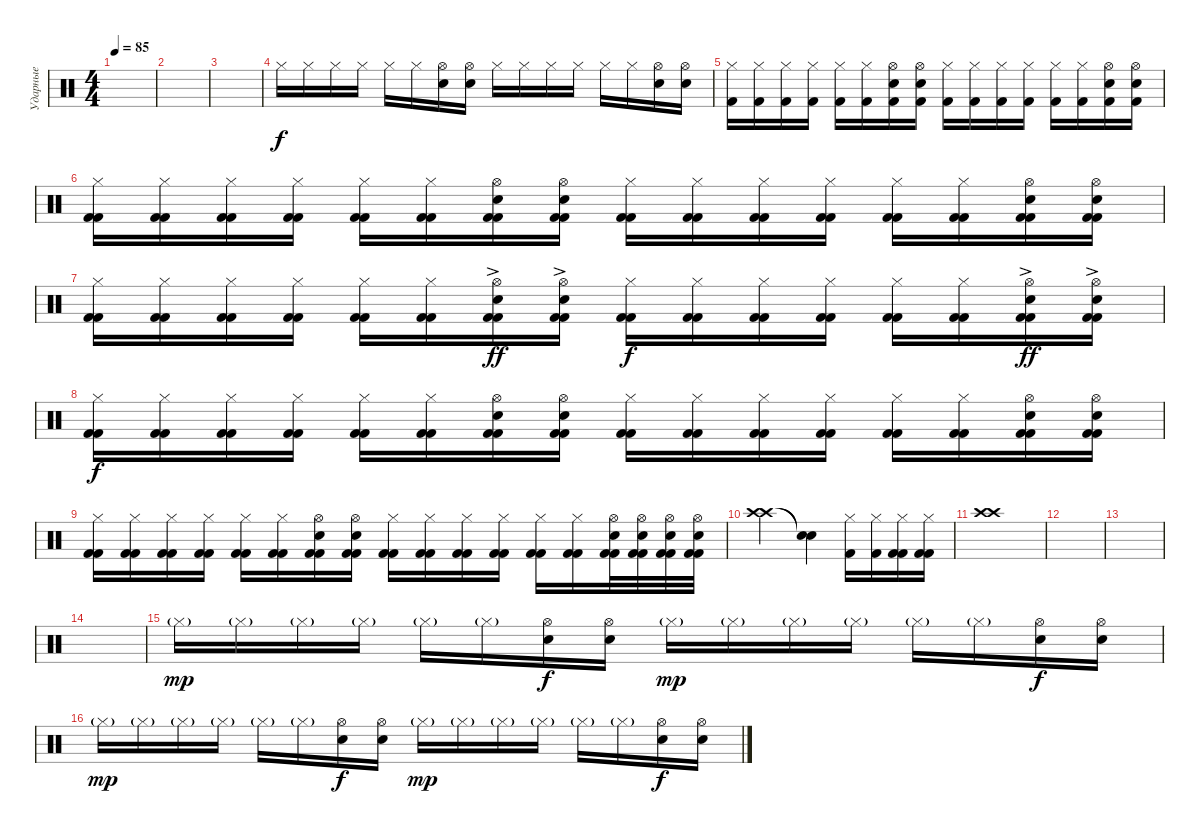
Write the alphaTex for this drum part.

\track ("Ударные" "Ударные") {instrument percussion}
\staff {score}
\articulation defaults
\ts (4 4)
\tempo 85
\clef neutral
\ks c
|
|
|
"Hi-Hat (closed)".16 "Hi-Hat (closed)".16 "Hi-Hat (closed)".16 "Hi-Hat (closed)".16 "Hi-Hat (closed)".16 "Hi-Hat (closed)".16 ("Hi-Hat (open)" "Electric Snare (hit)").16 ("Hi-Hat (open)" "Electric Snare (hit)").16 "Hi-Hat (closed)".16 "Hi-Hat (closed)".16 "Hi-Hat (closed)".16 "Hi-Hat (closed)".16 "Hi-Hat (closed)".16 "Hi-Hat (closed)".16 ("Hi-Hat (open)" "Electric Snare (hit)").16 ("Hi-Hat (open)" "Electric Snare (hit)").16 |
("Hi-Hat (closed)" "Kick (hit) 2").16 ("Hi-Hat (closed)" "Kick (hit) 2").16 ("Hi-Hat (closed)" "Kick (hit) 2").16 ("Hi-Hat (closed)" "Kick (hit) 2").16 ("Hi-Hat (closed)" "Kick (hit) 2").16 ("Hi-Hat (closed)" "Kick (hit) 2").16 ("Hi-Hat (open)" "Electric Snare (hit)" "Kick (hit) 2").16 ("Hi-Hat (open)" "Electric Snare (hit)" "Kick (hit) 2").16 ("Hi-Hat (closed)" "Kick (hit) 2").16 ("Hi-Hat (closed)" "Kick (hit) 2").16 ("Hi-Hat (closed)" "Kick (hit) 2").16 ("Hi-Hat (closed)" "Kick (hit) 2").16 ("Hi-Hat (closed)" "Kick (hit) 2").16 ("Hi-Hat (closed)" "Kick (hit) 2").16 ("Hi-Hat (open)" "Electric Snare (hit)" "Kick (hit) 2").16 ("Hi-Hat (open)" "Electric Snare (hit)" "Kick (hit) 2").16 |
("Hi-Hat (closed)" "Kick (hit) 2" "Kick (hit) 2").16 ("Hi-Hat (closed)" "Kick (hit) 2" "Kick (hit) 2").16 ("Hi-Hat (closed)" "Kick (hit) 2" "Kick (hit) 2").16 ("Hi-Hat (closed)" "Kick (hit) 2" "Kick (hit) 2").16 ("Hi-Hat (closed)" "Kick (hit) 2" "Kick (hit) 2").16 ("Hi-Hat (closed)" "Kick (hit) 2" "Kick (hit) 2").16 ("Hi-Hat (open)" "Electric Snare (hit)" "Kick (hit) 2" "Kick (hit) 2").16 ("Hi-Hat (open)" "Electric Snare (hit)" "Kick (hit) 2" "Kick (hit) 2").16 ("Hi-Hat (closed)" "Kick (hit) 2" "Kick (hit) 2").16 ("Hi-Hat (closed)" "Kick (hit) 2" "Kick (hit) 2").16 ("Hi-Hat (closed)" "Kick (hit) 2" "Kick (hit) 2").16 ("Hi-Hat (closed)" "Kick (hit) 2" "Kick (hit) 2").16 ("Hi-Hat (closed)" "Kick (hit) 2" "Kick (hit) 2").16 ("Hi-Hat (closed)" "Kick (hit) 2" "Kick (hit) 2").16 ("Hi-Hat (open)" "Electric Snare (hit)" "Kick (hit) 2" "Kick (hit) 2").16 ("Hi-Hat (open)" "Electric Snare (hit)" "Kick (hit) 2" "Kick (hit) 2").16 |
("Hi-Hat (closed)" "Kick (hit) 2" "Kick (hit) 2").16 ("Hi-Hat (closed)" "Kick (hit) 2" "Kick (hit) 2").16 ("Hi-Hat (closed)" "Kick (hit) 2" "Kick (hit) 2").16 ("Hi-Hat (closed)" "Kick (hit) 2" "Kick (hit) 2").16 ("Hi-Hat (closed)" "Kick (hit) 2" "Kick (hit) 2").16 ("Hi-Hat (closed)" "Kick (hit) 2" "Kick (hit) 2").16 ("Hi-Hat (open)"{ac} "Electric Snare (hit)"{ac} "Kick (hit) 2" "Kick (hit) 2").16{dy ff} ("Hi-Hat (open)"{ac} "Electric Snare (hit)"{ac} "Kick (hit) 2" "Kick (hit) 2").16 ("Hi-Hat (closed)" "Kick (hit) 2" "Kick (hit) 2").16{dy f} ("Hi-Hat (closed)" "Kick (hit) 2" "Kick (hit) 2").16 ("Hi-Hat (closed)" "Kick (hit) 2" "Kick (hit) 2").16 ("Hi-Hat (closed)" "Kick (hit) 2" "Kick (hit) 2").16 ("Hi-Hat (closed)" "Kick (hit) 2" "Kick (hit) 2").16 ("Hi-Hat (closed)" "Kick (hit) 2" "Kick (hit) 2").16 ("Hi-Hat (open)"{ac} "Electric Snare (hit)"{ac} "Kick (hit) 2" "Kick (hit) 2").16{dy ff} ("Hi-Hat (open)"{ac} "Electric Snare (hit)"{ac} "Kick (hit) 2" "Kick (hit) 2").16 |
("Hi-Hat (closed)" "Kick (hit) 2" "Kick (hit) 2").16{dy f} ("Hi-Hat (closed)" "Kick (hit) 2" "Kick (hit) 2").16 ("Hi-Hat (closed)" "Kick (hit) 2" "Kick (hit) 2").16 ("Hi-Hat (closed)" "Kick (hit) 2" "Kick (hit) 2").16 ("Hi-Hat (closed)" "Kick (hit) 2" "Kick (hit) 2").16 ("Hi-Hat (closed)" "Kick (hit) 2" "Kick (hit) 2").16 ("Hi-Hat (open)" "Electric Snare (hit)" "Kick (hit) 2" "Kick (hit) 2").16 ("Hi-Hat (open)" "Electric Snare (hit)" "Kick (hit) 2" "Kick (hit) 2").16 ("Hi-Hat (closed)" "Kick (hit) 2" "Kick (hit) 2").16 ("Hi-Hat (closed)" "Kick (hit) 2" "Kick (hit) 2").16 ("Hi-Hat (closed)" "Kick (hit) 2" "Kick (hit) 2").16 ("Hi-Hat (closed)" "Kick (hit) 2" "Kick (hit) 2").16 ("Hi-Hat (closed)" "Kick (hit) 2" "Kick (hit) 2").16 ("Hi-Hat (closed)" "Kick (hit) 2" "Kick (hit) 2").16 ("Hi-Hat (open)" "Electric Snare (hit)" "Kick (hit) 2" "Kick (hit) 2").16 ("Hi-Hat (open)" "Electric Snare (hit)" "Kick (hit) 2" "Kick (hit) 2").16 |
("Hi-Hat (closed)" "Kick (hit) 2" "Kick (hit) 2").16 ("Hi-Hat (closed)" "Kick (hit) 2" "Kick (hit) 2").16 ("Hi-Hat (closed)" "Kick (hit) 2" "Kick (hit) 2").16 ("Hi-Hat (closed)" "Kick (hit) 2" "Kick (hit) 2").16 ("Hi-Hat (closed)" "Kick (hit) 2" "Kick (hit) 2").16 ("Hi-Hat (closed)" "Kick (hit) 2" "Kick (hit) 2").16 ("Hi-Hat (open)" "Electric Snare (hit)" "Kick (hit) 2" "Kick (hit) 2").16 ("Hi-Hat (open)" "Electric Snare (hit)" "Kick (hit) 2" "Kick (hit) 2").16 ("Hi-Hat (closed)" "Kick (hit) 2" "Kick (hit) 2").16 ("Hi-Hat (closed)" "Kick (hit) 2" "Kick (hit) 2").16 ("Hi-Hat (closed)" "Kick (hit) 2" "Kick (hit) 2").16 ("Hi-Hat (closed)" "Kick (hit) 2" "Kick (hit) 2").16 ("Hi-Hat (closed)" "Kick (hit) 2" "Kick (hit) 2").16 ("Hi-Hat (closed)" "Kick (hit) 2" "Kick (hit) 2").16 ("Hi-Hat (open)" "Electric Snare (hit)" "Kick (hit) 2" "Kick (hit) 2").32 ("Hi-Hat (open)" "Electric Snare (hit)" "Kick (hit) 2" "Kick (hit) 2").32 ("Hi-Hat (open)" "Electric Snare (hit)" "Kick (hit) 2" "Kick (hit) 2").32 ("Hi-Hat (open)" "Electric Snare (hit)" "Kick (hit) 2" "Kick (hit) 2").32 |
("Crash high (hit)" "Crash high (hit)").2 ("Snare (hit)"{t} "Snare (hit)"{t}).4 ("Kick (hit) 2" "Hi-Hat (closed)").16 ("Kick (hit) 2" "Hi-Hat (closed)").16 ("Kick (hit) 2" "Kick (hit) 2" "Hi-Hat (closed)").16 ("Kick (hit) 2" "Kick (hit) 2" "Hi-Hat (closed)").16 |
("Crash high (hit)" "Crash high (hit)").1 |
|
|
|
"Hi-Hat (closed)"{g}.16{dy mp} "Hi-Hat (closed)"{g}.16 "Hi-Hat (closed)"{g}.16 "Hi-Hat (closed)"{g}.16 "Hi-Hat (closed)"{g}.16 "Hi-Hat (closed)"{g}.16 ("Hi-Hat (open)" "Electric Snare (hit)").16{dy f} ("Hi-Hat (open)" "Electric Snare (hit)").16 "Hi-Hat (closed)"{g}.16{dy mp} "Hi-Hat (closed)"{g}.16 "Hi-Hat (closed)"{g}.16 "Hi-Hat (closed)"{g}.16 "Hi-Hat (closed)"{g}.16 "Hi-Hat (closed)"{g}.16 ("Hi-Hat (open)" "Electric Snare (hit)").16{dy f} ("Hi-Hat (open)" "Electric Snare (hit)").16 |
"Hi-Hat (closed)"{g}.16{dy mp} "Hi-Hat (closed)"{g}.16 "Hi-Hat (closed)"{g}.16 "Hi-Hat (closed)"{g}.16 "Hi-Hat (closed)"{g}.16 "Hi-Hat (closed)"{g}.16 ("Hi-Hat (open)" "Electric Snare (hit)").16{dy f} ("Hi-Hat (open)" "Electric Snare (hit)").16 "Hi-Hat (closed)"{g}.16{dy mp} "Hi-Hat (closed)"{g}.16 "Hi-Hat (closed)"{g}.16 "Hi-Hat (closed)"{g}.16 "Hi-Hat (closed)"{g}.16 "Hi-Hat (closed)"{g}.16 ("Hi-Hat (open)" "Electric Snare (hit)").16{dy f} ("Hi-Hat (open)" "Electric Snare (hit)").16
